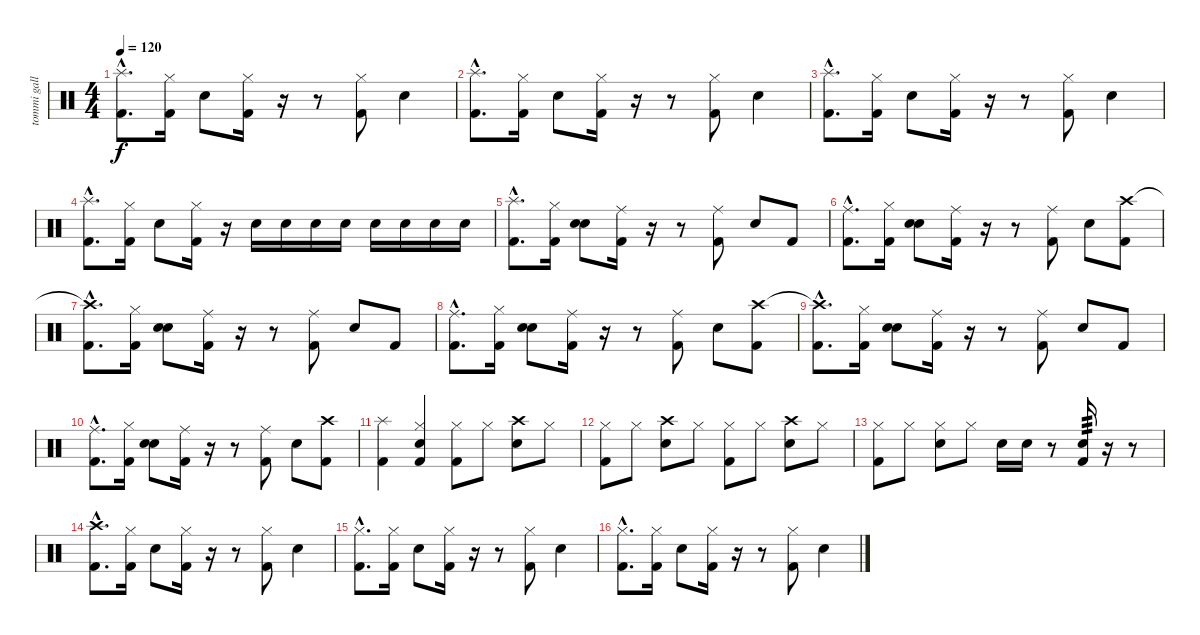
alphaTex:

\track ("tommi gallo" "tommi gall") {instrument percussion}
\staff {score}
\articulation defaults
\ts (4 4)
\tempo 120
\clef neutral
\ks c
("Splash (hit)"{hac} "Kick (hit) 2"{hac}).8{d dy f} ("Hi-Hat (closed)" "Kick (hit) 2").16 "Snare (hit) 2".8 ("Hi-Hat (closed)" "Kick (hit) 2").16 r.16 r.8 ("Hi-Hat (closed)" "Kick (hit) 2").8 "Snare (hit) 2".4 |
("Splash (hit)"{hac} "Kick (hit) 2"{hac}).8{d} ("Hi-Hat (closed)" "Kick (hit) 2").16 "Snare (hit) 2".8 ("Hi-Hat (closed)" "Kick (hit) 2").16 r.16 r.8 ("Hi-Hat (closed)" "Kick (hit) 2").8 "Snare (hit) 2".4 |
("Splash (hit)"{hac} "Kick (hit) 2"{hac}).8{d} ("Hi-Hat (closed)" "Kick (hit) 2").16 "Snare (hit) 2".8 ("Hi-Hat (closed)" "Kick (hit) 2").16 r.16 r.8 ("Hi-Hat (closed)" "Kick (hit) 2").8 "Snare (hit) 2".4 |
("Splash (hit)"{hac} "Kick (hit) 2"{hac}).8{d} ("Hi-Hat (closed)" "Kick (hit) 2").16 "Snare (hit) 2".8 ("Hi-Hat (closed)" "Kick (hit) 2").16 r.16 "Snare (hit) 2".16 "Snare (hit) 2".16 "Snare (hit) 2".16 "Snare (hit) 2".16 "Snare (hit) 2".16 "Snare (hit) 2".16 "Snare (hit) 2".16 "Snare (hit) 2".16 |
("Splash (hit)"{hac} "Kick (hit) 2"{hac}).8{d} ("Hi-Hat (closed)" "Kick (hit) 2").16 ("Snare (hit) 2" "Snare (hit) 2").8 ("Ride (middle)" "Kick (hit) 2").16 r.16 r.8 ("Ride (middle)" "Kick (hit) 2").8 "Snare (hit) 2".8 "Kick (hit) 2".8 |
("Ride (middle)"{hac} "Kick (hit) 2"{hac}).8{d} ("Hi-Hat (closed)" "Kick (hit) 2").16 ("Snare (hit) 2" "Snare (hit) 2").8 ("Ride (middle)" "Kick (hit) 2").16 r.16 r.8 ("Ride (middle)" "Kick (hit) 2").8 "Snare (hit) 2".8 ("Crash high (hit)" "Kick (hit) 2").8 |
("Crash high (hit)"{hac t} "Kick (hit) 2"{hac}).8{d} ("Hi-Hat (closed)" "Kick (hit) 2").16 ("Snare (hit) 2" "Snare (hit) 2").8 ("Ride (middle)" "Kick (hit) 2").16 r.16 r.8 ("Ride (middle)" "Kick (hit) 2").8 "Snare (hit) 2".8 "Kick (hit) 2".8 |
("Ride (middle)"{hac} "Kick (hit) 2"{hac}).8{d} ("Hi-Hat (closed)" "Kick (hit) 2").16 ("Snare (hit) 2" "Snare (hit) 2").8 ("Ride (middle)" "Kick (hit) 2").16 r.16 r.8 ("Ride (middle)" "Kick (hit) 2").8 "Snare (hit) 2".8 ("Crash high (hit)" "Kick (hit) 2").8 |
("Crash high (hit)"{hac t} "Kick (hit) 2"{hac}).8{d} ("Hi-Hat (closed)" "Kick (hit) 2").16 ("Snare (hit) 2" "Snare (hit) 2").8 ("Ride (middle)" "Kick (hit) 2").16 r.16 r.8 ("Ride (middle)" "Kick (hit) 2").8 "Snare (hit) 2".8 "Kick (hit) 2".8 |
("Ride (middle)"{hac} "Kick (hit) 2"{hac}).8{d} ("Hi-Hat (closed)" "Kick (hit) 2").16 ("Snare (hit) 2" "Snare (hit) 2").8 ("Ride (middle)" "Kick (hit) 2").16 r.16 r.8 ("Ride (middle)" "Kick (hit) 2").8 "Snare (hit) 2".8 ("Crash high (hit)" "Kick (hit) 2").8 |
("Splash (hit)" "Kick (hit) 2").4 ("Hi-Hat (closed)" "Snare (hit) 2" "Kick (hit) 2").4 ("Hi-Hat (closed)" "Kick (hit) 2").8 "Hi-Hat (closed)".8 ("Crash high (hit)" "Snare (hit) 2").8 "Hi-Hat (closed)".8 |
("Hi-Hat (closed)" "Kick (hit) 2").8 "Hi-Hat (closed)".8 ("Crash high (hit)" "Snare (hit) 2").8 "Hi-Hat (closed)".8 ("Hi-Hat (closed)" "Kick (hit) 2").8 "Hi-Hat (closed)".8 ("Crash high (hit)" "Snare (hit) 2").8 "Hi-Hat (closed)".8 |
("Hi-Hat (closed)" "Kick (hit) 2").8 "Hi-Hat (closed)".8 ("Hi-Hat (closed)" "Snare (hit) 2").8 "Hi-Hat (closed)".8 "Snare (hit) 2".16 "Snare (hit) 2".16 r.8 ("Snare (hit) 2" "Kick (hit) 2").16{tp 3} r.16 r.8 |
("Crash high (hit)"{hac} "Kick (hit) 2"{hac}).8{d} ("Hi-Hat (closed)" "Kick (hit) 2").16 "Snare (hit) 2".8 ("Hi-Hat (closed)" "Kick (hit) 2").16 r.16 r.8 ("Hi-Hat (closed)" "Kick (hit) 2").8 "Snare (hit) 2".4 |
("Hi-Hat (closed)"{hac} "Kick (hit) 2"{hac}).8{d} ("Hi-Hat (closed)" "Kick (hit) 2").16 "Snare (hit) 2".8 ("Hi-Hat (closed)" "Kick (hit) 2").16 r.16 r.8 ("Hi-Hat (closed)" "Kick (hit) 2").8 "Snare (hit) 2".4 |
("Hi-Hat (closed)"{hac} "Kick (hit) 2"{hac}).8{d} ("Hi-Hat (closed)" "Kick (hit) 2").16 "Snare (hit) 2".8 ("Hi-Hat (closed)" "Kick (hit) 2").16 r.16 r.8 ("Hi-Hat (closed)" "Kick (hit) 2").8 "Snare (hit) 2".4
